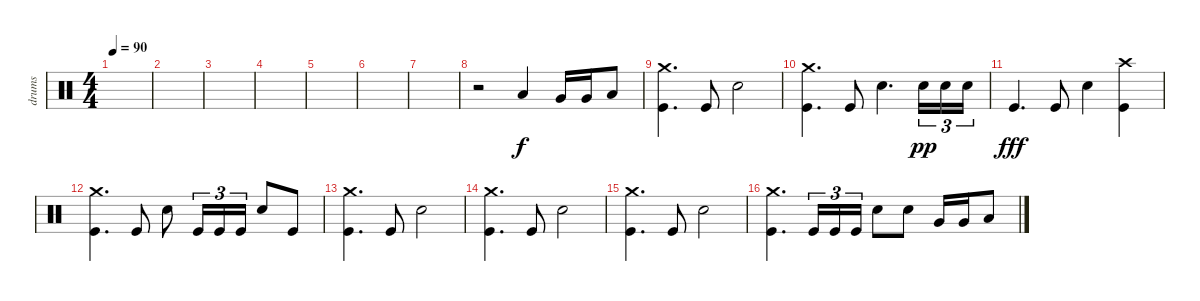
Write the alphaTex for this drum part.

\track ("drums" "drums") {instrument percussion}
\staff {score}
\articulation defaults
\ts (4 4)
\tempo 90
\clef neutral
\ks c
|
|
|
|
|
|
|
r.2 "Low Tom (hit)".4 "Very Low Tom (hit)".16 "Very Low Tom (hit)".16 "Low Floor Tom (hit)".8 |
("Crash medium (hit)" "Kick (hit)").4{d} "Kick (hit)".8 "Electric Snare (hit)".2 |
("Crash medium (hit)" "Kick (hit)").4{d} "Kick (hit)".8 "Electric Snare (hit)".4{d} "Electric Snare (hit)".16{tu (3 2) dy pp} "Electric Snare (hit)".16{tu (3 2)} "Electric Snare (hit)".16{tu (3 2)} |
"Kick (hit)".4{d dy fff} "Kick (hit)".8 "Electric Snare (hit)".4 ("Crash high (hit)" "Kick (hit)").4 |
("Crash medium (hit)" "Kick (hit)").4{d} "Kick (hit)".8 "Electric Snare (hit)".8 "Kick (hit)".16{tu (3 2)} "Kick (hit)".16{tu (3 2)} "Kick (hit)".16{tu (3 2)} "Electric Snare (hit)".8 "Kick (hit)".8 |
("Crash medium (hit)" "Kick (hit)").4{d} "Kick (hit)".8 "Electric Snare (hit)".2 |
("Crash medium (hit)" "Kick (hit)").4{d} "Kick (hit)".8 "Electric Snare (hit)".2 |
("Crash medium (hit)" "Kick (hit)").4{d} "Kick (hit)".8 "Electric Snare (hit)".2 |
("Crash medium (hit)" "Kick (hit)").4{d} "Kick (hit)".16{tu (3 2)} "Kick (hit)".16{tu (3 2)} "Kick (hit)".16{tu (3 2)} "Electric Snare (hit)".8 "Electric Snare (hit)".8 "Very Low Tom (hit)".16 "Very Low Tom (hit)".16 "Low Floor Tom (hit)".8
